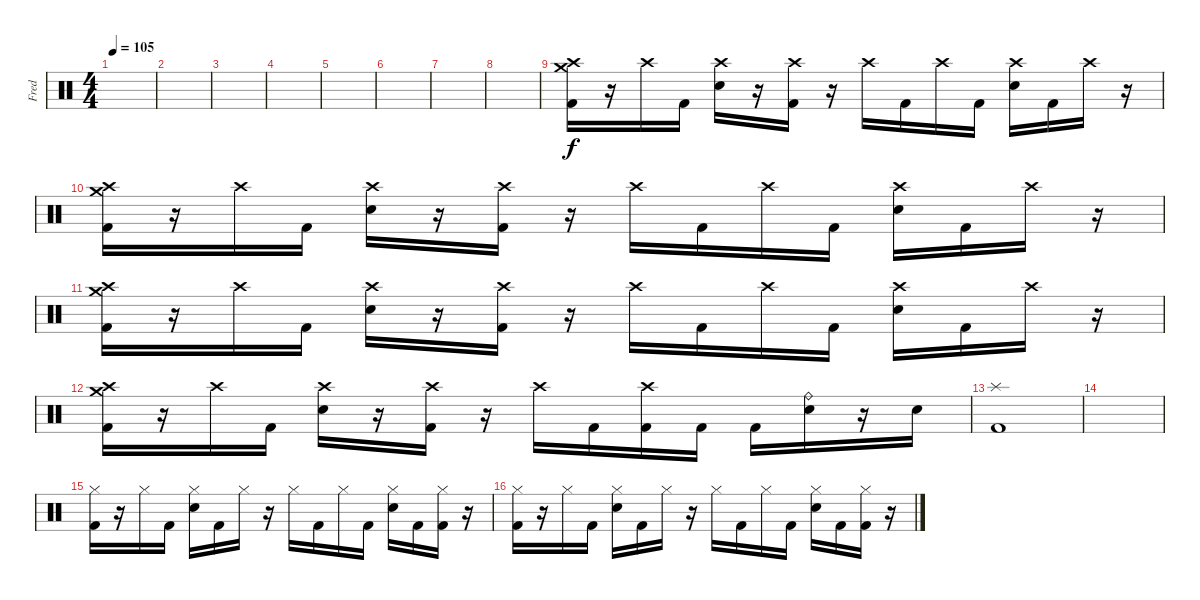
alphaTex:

\track ("Fred" "Fred") {instrument percussion}
\staff {score}
\articulation defaults
\ts (4 4)
\tempo 105
\clef neutral
\ks c
|
|
|
|
|
|
|
|
("Crash medium (hit)" "Crash high (hit)" "Kick (hit) 2").16 r.16 "Crash high (hit)".16 "Kick (hit) 2".16 ("Crash high (hit)" "Electric Snare (hit)").16 r.16 ("Crash high (hit)" "Kick (hit) 2").16 r.16 "Crash high (hit)".16 "Kick (hit) 2".16 "Crash high (hit)".16 "Kick (hit) 2".16 ("Crash high (hit)" "Electric Snare (hit)").16 "Kick (hit) 2".16 "Crash high (hit)".16 r.16 |
("Crash high (hit)" "Crash medium (hit)" "Kick (hit) 2").16 r.16 "Crash high (hit)".16 "Kick (hit) 2".16 ("Crash high (hit)" "Electric Snare (hit)").16 r.16 ("Crash high (hit)" "Kick (hit) 2").16 r.16 "Crash high (hit)".16 "Kick (hit) 2".16 "Crash high (hit)".16 "Kick (hit) 2".16 ("Crash high (hit)" "Electric Snare (hit)").16 "Kick (hit) 2".16 "Crash high (hit)".16 r.16 |
("Crash high (hit)" "Crash medium (hit)" "Kick (hit) 2").16 r.16 "Crash high (hit)".16 "Kick (hit) 2".16 ("Crash high (hit)" "Electric Snare (hit)").16 r.16 ("Crash high (hit)" "Kick (hit) 2").16 r.16 "Crash high (hit)".16 "Kick (hit) 2".16 "Crash high (hit)".16 "Kick (hit) 2".16 ("Crash high (hit)" "Electric Snare (hit)").16 "Kick (hit) 2".16 "Crash high (hit)".16 r.16 |
("Crash high (hit)" "Crash medium (hit)" "Kick (hit) 2").16 r.16 "Crash high (hit)".16 "Kick (hit) 2".16 ("Crash high (hit)" "Electric Snare (hit)").16 r.16 ("Crash high (hit)" "Kick (hit) 2").16 r.16 "Crash high (hit)".16 "Kick (hit) 2".16 ("Crash high (hit)" "Kick (hit) 2").16 "Kick (hit) 2".16 "Kick (hit) 2".16 ("Ride (bell)" "Electric Snare (hit)").16 r.16 "Electric Snare (hit)".16 |
("Splash (hit)" "Kick (hit) 2").1 |
|
("Hi-Hat (closed)" "Kick (hit) 2").16 r.16 "Hi-Hat (closed)".16 "Kick (hit) 2".16 ("Hi-Hat (closed)" "Electric Snare (hit)").16 "Kick (hit) 2".16 "Hi-Hat (closed)".16 r.16 "Hi-Hat (closed)".16 "Kick (hit) 2".16 "Hi-Hat (closed)".16 "Kick (hit) 2".16 ("Hi-Hat (closed)" "Electric Snare (hit)").16 "Kick (hit) 2".16 ("Hi-Hat (closed)" "Kick (hit) 2").16 r.16 |
("Hi-Hat (closed)" "Kick (hit) 2").16 r.16 "Hi-Hat (closed)".16 "Kick (hit) 2".16 ("Hi-Hat (closed)" "Electric Snare (hit)").16 "Kick (hit) 2".16 "Hi-Hat (closed)".16 r.16 "Hi-Hat (closed)".16 "Kick (hit) 2".16 "Hi-Hat (closed)".16 "Kick (hit) 2".16 ("Hi-Hat (closed)" "Electric Snare (hit)").16 "Kick (hit) 2".16 ("Hi-Hat (closed)" "Kick (hit) 2").16 r.16
